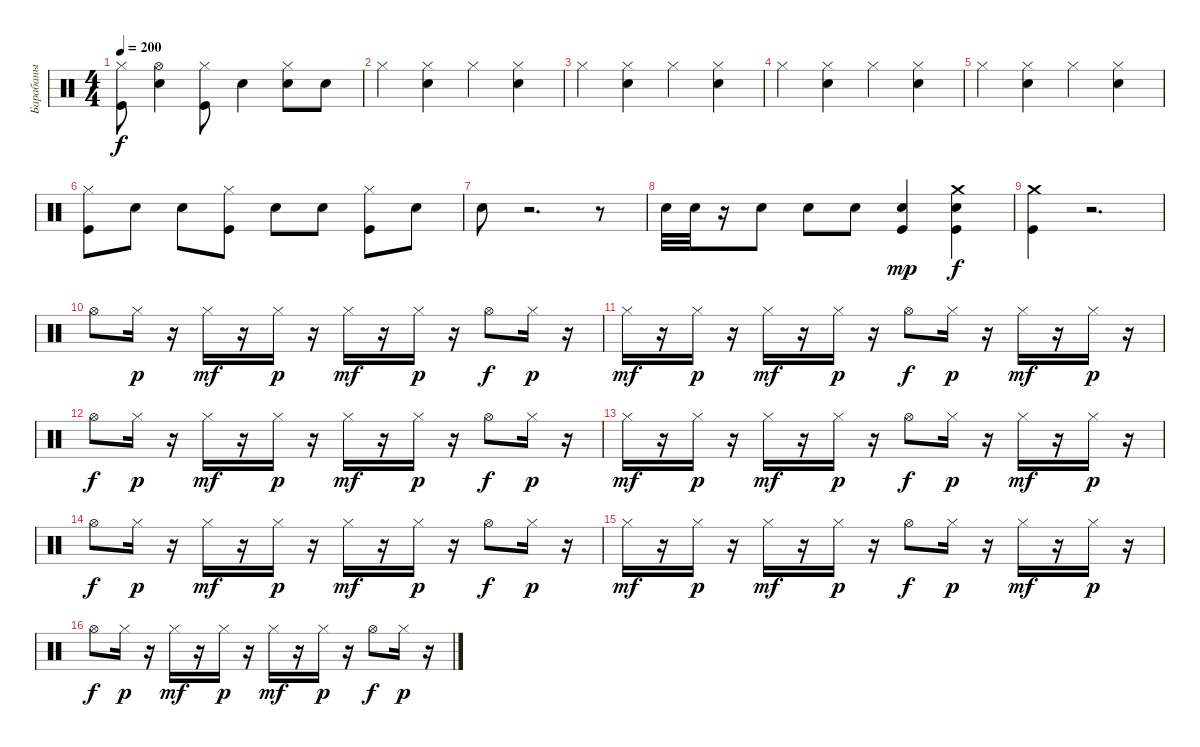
\track ("Барабаны" "Барабаны") {instrument percussion}
\staff {score}
\articulation defaults
\ts (4 4)
\tempo 200
\clef neutral
\ks c
("Kick (hit)" "Hi-Hat (closed)").8{dy f} ("Hi-Hat (open)" "Electric Snare (hit)").4 ("Kick (hit)" "Hi-Hat (closed)").8 "Electric Snare (hit)".4 ("Electric Snare (hit)" "Hi-Hat (closed)").8 "Electric Snare (hit)".8 |
"Hi-Hat (closed)".4 ("Snare (hit) 2" "Hi-Hat (closed)").4 "Hi-Hat (closed)".4 ("Snare (hit) 2" "Hi-Hat (closed)").4 |
"Hi-Hat (closed)".4 ("Snare (hit) 2" "Hi-Hat (closed)").4 "Hi-Hat (closed)".4 ("Snare (hit) 2" "Hi-Hat (closed)").4 |
"Hi-Hat (closed)".4 ("Snare (hit) 2" "Hi-Hat (closed)").4 "Hi-Hat (closed)".4 ("Snare (hit) 2" "Hi-Hat (closed)").4 |
"Hi-Hat (closed)".4 ("Snare (hit) 2" "Hi-Hat (closed)").4 "Hi-Hat (closed)".4 ("Snare (hit) 2" "Hi-Hat (closed)").4 |
("Hi-Hat (closed)" "Kick (hit)").8 "Electric Snare (hit)".8 "Electric Snare (hit)".8 ("Hi-Hat (closed)" "Kick (hit)").8 "Electric Snare (hit)".8 "Electric Snare (hit)".8 ("Hi-Hat (closed)" "Kick (hit)").8 "Electric Snare (hit)".8 |
"Electric Snare (hit)".8 r.2{d} r.8 |
"Electric Snare (hit)".32{volume 11 balance 8} "Electric Snare (hit)".32 r.16 "Electric Snare (hit)".8 "Electric Snare (hit)".8 "Electric Snare (hit)".8 ("Kick (hit)" "Electric Snare (hit)").4{dy mp} ("Kick (hit)" "Crash medium (hit)" "Electric Snare (hit)").4{dy f} |
("Kick (hit)" "Crash medium (hit)").4 r.2{d} |
"Hi-Hat (open)".8 "Hi-Hat (closed)".16{dy p} r.16 "Hi-Hat (closed)".16{dy mf} r.16 "Hi-Hat (closed)".16{dy p} r.16 "Hi-Hat (closed)".16{dy mf} r.16 "Hi-Hat (closed)".16{dy p} r.16 "Hi-Hat (open)".8{dy f} "Hi-Hat (closed)".16{dy p} r.16 |
"Hi-Hat (closed)".16{dy mf} r.16 "Hi-Hat (closed)".16{dy p} r.16 "Hi-Hat (closed)".16{dy mf} r.16 "Hi-Hat (closed)".16{dy p} r.16 "Hi-Hat (open)".8{dy f} "Hi-Hat (closed)".16{dy p} r.16 "Hi-Hat (closed)".16{dy mf} r.16 "Hi-Hat (closed)".16{dy p} r.16 |
"Hi-Hat (open)".8{dy f} "Hi-Hat (closed)".16{dy p} r.16 "Hi-Hat (closed)".16{dy mf} r.16 "Hi-Hat (closed)".16{dy p} r.16 "Hi-Hat (closed)".16{dy mf} r.16 "Hi-Hat (closed)".16{dy p} r.16 "Hi-Hat (open)".8{dy f} "Hi-Hat (closed)".16{dy p} r.16 |
"Hi-Hat (closed)".16{dy mf} r.16 "Hi-Hat (closed)".16{dy p} r.16 "Hi-Hat (closed)".16{dy mf} r.16 "Hi-Hat (closed)".16{dy p} r.16 "Hi-Hat (open)".8{dy f} "Hi-Hat (closed)".16{dy p} r.16 "Hi-Hat (closed)".16{dy mf} r.16 "Hi-Hat (closed)".16{dy p} r.16 |
"Hi-Hat (open)".8{dy f} "Hi-Hat (closed)".16{dy p} r.16 "Hi-Hat (closed)".16{dy mf} r.16 "Hi-Hat (closed)".16{dy p} r.16 "Hi-Hat (closed)".16{dy mf} r.16 "Hi-Hat (closed)".16{dy p} r.16 "Hi-Hat (open)".8{dy f} "Hi-Hat (closed)".16{dy p} r.16 |
"Hi-Hat (closed)".16{dy mf} r.16 "Hi-Hat (closed)".16{dy p} r.16 "Hi-Hat (closed)".16{dy mf} r.16 "Hi-Hat (closed)".16{dy p} r.16 "Hi-Hat (open)".8{dy f} "Hi-Hat (closed)".16{dy p} r.16 "Hi-Hat (closed)".16{dy mf} r.16 "Hi-Hat (closed)".16{dy p} r.16 |
"Hi-Hat (open)".8{dy f} "Hi-Hat (closed)".16{dy p} r.16 "Hi-Hat (closed)".16{dy mf} r.16 "Hi-Hat (closed)".16{dy p} r.16 "Hi-Hat (closed)".16{dy mf} r.16 "Hi-Hat (closed)".16{dy p} r.16 "Hi-Hat (open)".8{dy f} "Hi-Hat (closed)".16{dy p} r.16
